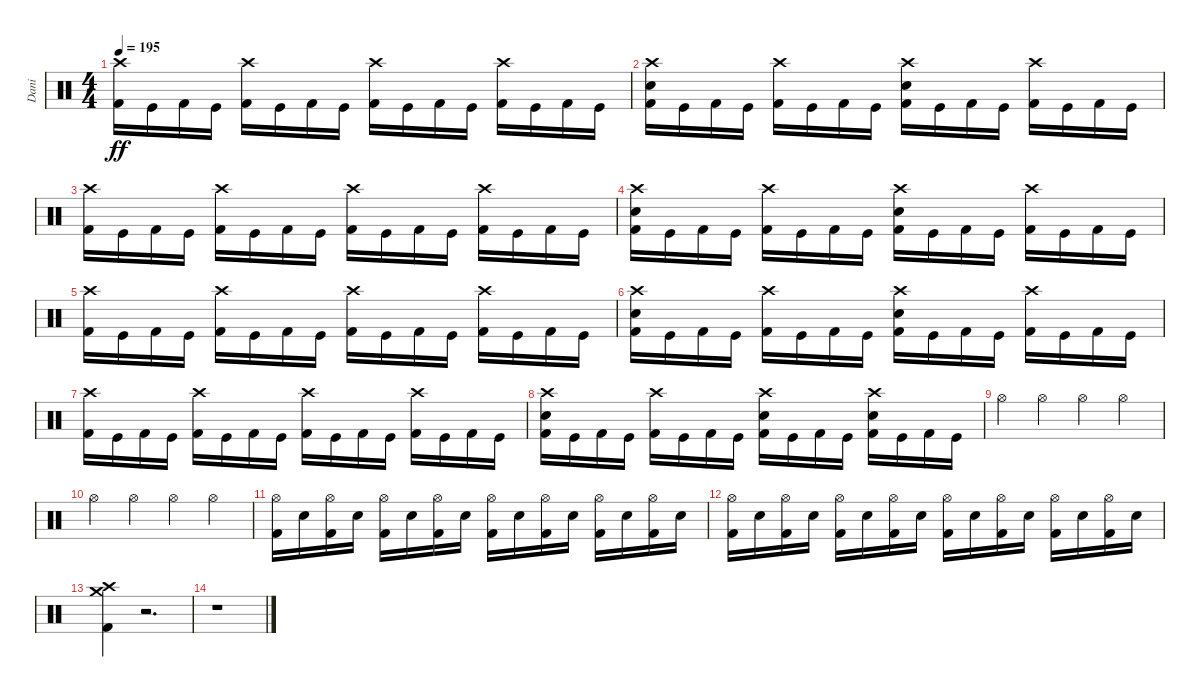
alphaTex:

\track ("Dani" "Dani") {instrument percussion}
\staff {score}
\articulation defaults
\ts (4 4)
\tempo 195
\clef neutral
\ks c
("Crash high (hit)" "Kick (hit) 2").16{dy ff} "Kick (hit)".16 "Kick (hit) 2".16 "Kick (hit)".16 ("Crash high (hit)" "Kick (hit) 2").16 "Kick (hit)".16 "Kick (hit) 2".16 "Kick (hit)".16 ("Crash high (hit)" "Kick (hit) 2").16 "Kick (hit)".16 "Kick (hit) 2".16 "Kick (hit)".16 ("Crash high (hit)" "Kick (hit) 2").16 "Kick (hit)".16 "Kick (hit) 2".16 "Kick (hit)".16 |
("Crash high (hit)" "Electric Snare (hit)" "Kick (hit) 2").16 "Kick (hit)".16 "Kick (hit) 2".16 "Kick (hit)".16 ("Crash high (hit)" "Kick (hit) 2").16 "Kick (hit)".16 "Kick (hit) 2".16 "Kick (hit)".16 ("Crash high (hit)" "Electric Snare (hit)" "Kick (hit) 2").16 "Kick (hit)".16 "Kick (hit) 2".16 "Kick (hit)".16 ("Crash high (hit)" "Kick (hit) 2").16 "Kick (hit)".16 "Kick (hit) 2".16 "Kick (hit)".16 |
("Crash high (hit)" "Kick (hit) 2").16 "Kick (hit)".16 "Kick (hit) 2".16 "Kick (hit)".16 ("Crash high (hit)" "Kick (hit) 2").16 "Kick (hit)".16 "Kick (hit) 2".16 "Kick (hit)".16 ("Crash high (hit)" "Kick (hit) 2").16 "Kick (hit)".16 "Kick (hit) 2".16 "Kick (hit)".16 ("Crash high (hit)" "Kick (hit) 2").16 "Kick (hit)".16 "Kick (hit) 2".16 "Kick (hit)".16 |
("Crash high (hit)" "Electric Snare (hit)" "Kick (hit) 2").16 "Kick (hit)".16 "Kick (hit) 2".16 "Kick (hit)".16 ("Crash high (hit)" "Kick (hit) 2").16 "Kick (hit)".16 "Kick (hit) 2".16 "Kick (hit)".16 ("Crash high (hit)" "Electric Snare (hit)" "Kick (hit) 2").16 "Kick (hit)".16 "Kick (hit) 2".16 "Kick (hit)".16 ("Crash high (hit)" "Kick (hit) 2").16 "Kick (hit)".16 "Kick (hit) 2".16 "Kick (hit)".16 |
("Crash high (hit)" "Kick (hit) 2").16 "Kick (hit)".16 "Kick (hit) 2".16 "Kick (hit)".16 ("Crash high (hit)" "Kick (hit) 2").16 "Kick (hit)".16 "Kick (hit) 2".16 "Kick (hit)".16 ("Crash high (hit)" "Kick (hit) 2").16 "Kick (hit)".16 "Kick (hit) 2".16 "Kick (hit)".16 ("Crash high (hit)" "Kick (hit) 2").16 "Kick (hit)".16 "Kick (hit) 2".16 "Kick (hit)".16 |
("Crash high (hit)" "Electric Snare (hit)" "Kick (hit) 2").16 "Kick (hit)".16 "Kick (hit) 2".16 "Kick (hit)".16 ("Crash high (hit)" "Kick (hit) 2").16 "Kick (hit)".16 "Kick (hit) 2".16 "Kick (hit)".16 ("Crash high (hit)" "Electric Snare (hit)" "Kick (hit) 2").16 "Kick (hit)".16 "Kick (hit) 2".16 "Kick (hit)".16 ("Crash high (hit)" "Kick (hit) 2").16 "Kick (hit)".16 "Kick (hit) 2".16 "Kick (hit)".16 |
("Crash high (hit)" "Kick (hit) 2").16 "Kick (hit)".16 "Kick (hit) 2".16 "Kick (hit)".16 ("Crash high (hit)" "Kick (hit) 2").16 "Kick (hit)".16 "Kick (hit) 2".16 "Kick (hit)".16 ("Crash high (hit)" "Kick (hit) 2").16 "Kick (hit)".16 "Kick (hit) 2".16 "Kick (hit)".16 ("Crash high (hit)" "Kick (hit) 2").16 "Kick (hit)".16 "Kick (hit) 2".16 "Kick (hit)".16 |
("Crash high (hit)" "Electric Snare (hit)" "Kick (hit) 2").16 "Kick (hit)".16 "Kick (hit) 2".16 "Kick (hit)".16 ("Crash high (hit)" "Kick (hit) 2").16 "Kick (hit)".16 "Kick (hit) 2".16 "Kick (hit)".16 ("Crash high (hit)" "Electric Snare (hit)" "Kick (hit) 2").16 "Kick (hit)".16 "Kick (hit) 2".16 "Kick (hit)".16 ("Crash high (hit)" "Electric Snare (hit)" "Kick (hit) 2").16 "Kick (hit)".16 "Kick (hit) 2".16 "Kick (hit)".16 |
"Hi-Hat (open)".4 "Hi-Hat (open)".4 "Hi-Hat (open)".4 "Hi-Hat (open)".4 |
"Hi-Hat (open)".4 "Hi-Hat (open)".4 "Hi-Hat (open)".4 "Hi-Hat (open)".4 |
("Hi-Hat (open)" "Kick (hit) 2").16 "Electric Snare (hit)".16 ("Hi-Hat (open)" "Kick (hit) 2").16 "Electric Snare (hit)".16 ("Hi-Hat (open)" "Kick (hit) 2").16 "Electric Snare (hit)".16 ("Hi-Hat (open)" "Kick (hit) 2").16 "Electric Snare (hit)".16 ("Hi-Hat (open)" "Kick (hit) 2").16 "Electric Snare (hit)".16 ("Hi-Hat (open)" "Kick (hit) 2").16 "Electric Snare (hit)".16 ("Hi-Hat (open)" "Kick (hit) 2").16 "Electric Snare (hit)".16 ("Hi-Hat (open)" "Kick (hit) 2").16 "Electric Snare (hit)".16 |
("Hi-Hat (open)" "Kick (hit) 2").16 "Electric Snare (hit)".16 ("Hi-Hat (open)" "Kick (hit) 2").16 "Electric Snare (hit)".16 ("Hi-Hat (open)" "Kick (hit) 2").16 "Electric Snare (hit)".16 ("Hi-Hat (open)" "Kick (hit) 2").16 "Electric Snare (hit)".16 ("Hi-Hat (open)" "Kick (hit) 2").16 "Electric Snare (hit)".16 ("Hi-Hat (open)" "Kick (hit) 2").16 "Electric Snare (hit)".16 ("Hi-Hat (open)" "Kick (hit) 2").16 "Electric Snare (hit)".16 ("Hi-Hat (open)" "Kick (hit) 2").16 "Electric Snare (hit)".16 |
("Crash medium (hit)" "Crash high (hit)" "Kick (hit) 2").4 r.2{d} |
r.1
